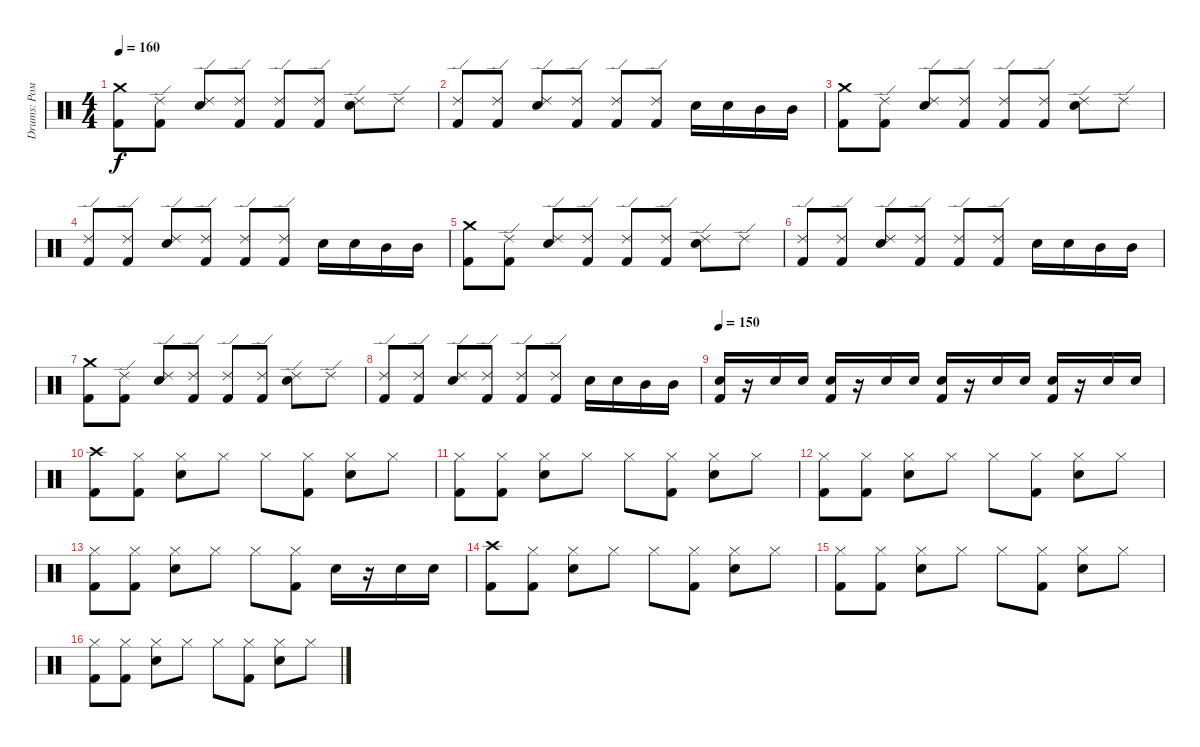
\track ("Drums: Рома" "Drums: Ром") {instrument percussion}
\staff {score}
\articulation defaults
\ts (4 4)
\tempo 160
\clef neutral
\ks c
("Crash medium (hit)" "Kick (hit) 2").8{dy f} ("Ride (edge) 2" "Kick (hit) 2").8 ("Ride (edge) 2" "Snare (hit) 2").8 ("Ride (edge) 2" "Kick (hit) 2").8 ("Ride (edge) 2" "Kick (hit) 2").8 ("Ride (edge) 2" "Kick (hit) 2").8 ("Ride (edge) 2" "Snare (hit) 2").8 "Ride (edge) 2".8 |
("Ride (edge) 2" "Kick (hit) 2").8 ("Ride (edge) 2" "Kick (hit) 2").8 ("Ride (edge) 2" "Snare (hit) 2").8 ("Ride (edge) 2" "Kick (hit) 2").8 ("Ride (edge) 2" "Kick (hit) 2").8 ("Ride (edge) 2" "Kick (hit) 2").8 "Snare (hit) 2".16 "Snare (hit) 2".16 "Mid Tom (hit)".16 "Mid Tom (hit)".16 |
("Crash medium (hit)" "Kick (hit) 2").8 ("Ride (edge) 2" "Kick (hit) 2").8 ("Ride (edge) 2" "Snare (hit) 2").8 ("Ride (edge) 2" "Kick (hit) 2").8 ("Ride (edge) 2" "Kick (hit) 2").8 ("Ride (edge) 2" "Kick (hit) 2").8 ("Ride (edge) 2" "Snare (hit) 2").8 "Ride (edge) 2".8 |
("Ride (edge) 2" "Kick (hit) 2").8 ("Ride (edge) 2" "Kick (hit) 2").8 ("Ride (edge) 2" "Snare (hit) 2").8 ("Ride (edge) 2" "Kick (hit) 2").8 ("Ride (edge) 2" "Kick (hit) 2").8 ("Ride (edge) 2" "Kick (hit) 2").8 "Snare (hit) 2".16 "Snare (hit) 2".16 "Mid Tom (hit)".16 "Mid Tom (hit)".16 |
("Crash medium (hit)" "Kick (hit) 2").8 ("Ride (edge) 2" "Kick (hit) 2").8 ("Ride (edge) 2" "Snare (hit) 2").8 ("Ride (edge) 2" "Kick (hit) 2").8 ("Ride (edge) 2" "Kick (hit) 2").8 ("Ride (edge) 2" "Kick (hit) 2").8 ("Ride (edge) 2" "Snare (hit) 2").8 "Ride (edge) 2".8 |
("Ride (edge) 2" "Kick (hit) 2").8 ("Ride (edge) 2" "Kick (hit) 2").8 ("Ride (edge) 2" "Snare (hit) 2").8 ("Ride (edge) 2" "Kick (hit) 2").8 ("Ride (edge) 2" "Kick (hit) 2").8 ("Ride (edge) 2" "Kick (hit) 2").8 "Snare (hit) 2".16 "Snare (hit) 2".16 "Mid Tom (hit)".16 "Mid Tom (hit)".16 |
("Crash medium (hit)" "Kick (hit) 2").8 ("Ride (edge) 2" "Kick (hit) 2").8 ("Ride (edge) 2" "Snare (hit) 2").8 ("Ride (edge) 2" "Kick (hit) 2").8 ("Ride (edge) 2" "Kick (hit) 2").8 ("Ride (edge) 2" "Kick (hit) 2").8 ("Ride (edge) 2" "Snare (hit) 2").8 "Ride (edge) 2".8 |
("Ride (edge) 2" "Kick (hit) 2").8 ("Ride (edge) 2" "Kick (hit) 2").8 ("Ride (edge) 2" "Snare (hit) 2").8 ("Ride (edge) 2" "Kick (hit) 2").8 ("Ride (edge) 2" "Kick (hit) 2").8 ("Ride (edge) 2" "Kick (hit) 2").8 "Snare (hit) 2".16 "Snare (hit) 2".16 "Mid Tom (hit)".16 "Mid Tom (hit)".16 |
\tempo 150
("Snare (hit) 2" "Kick (hit) 2").16 r.16 "Snare (hit) 2".16 "Snare (hit) 2".16 ("Snare (hit) 2" "Kick (hit) 2").16 r.16 "Snare (hit) 2".16 "Snare (hit) 2".16 ("Snare (hit) 2" "Kick (hit) 2").16 r.16 "Snare (hit) 2".16 "Snare (hit) 2".16 ("Snare (hit) 2" "Kick (hit) 2").16 r.16 "Snare (hit) 2".16 "Snare (hit) 2".16 |
("Crash high (hit)" "Kick (hit) 2").8 ("Hi-Hat (closed)" "Kick (hit) 2").8 ("Hi-Hat (closed)" "Snare (hit) 2").8 "Hi-Hat (closed)".8 "Hi-Hat (closed)".8 ("Hi-Hat (closed)" "Kick (hit) 2").8 ("Hi-Hat (closed)" "Snare (hit) 2").8 "Hi-Hat (closed)".8 |
("Hi-Hat (closed)" "Kick (hit) 2").8 ("Hi-Hat (closed)" "Kick (hit) 2").8 ("Hi-Hat (closed)" "Snare (hit) 2").8 "Hi-Hat (closed)".8 "Hi-Hat (closed)".8 ("Hi-Hat (closed)" "Kick (hit) 2").8 ("Hi-Hat (closed)" "Snare (hit) 2").8 "Hi-Hat (closed)".8 |
("Hi-Hat (closed)" "Kick (hit) 2").8 ("Hi-Hat (closed)" "Kick (hit) 2").8 ("Hi-Hat (closed)" "Snare (hit) 2").8 "Hi-Hat (closed)".8 "Hi-Hat (closed)".8 ("Hi-Hat (closed)" "Kick (hit) 2").8 ("Hi-Hat (closed)" "Snare (hit) 2").8 "Hi-Hat (closed)".8 |
("Hi-Hat (closed)" "Kick (hit) 2").8 ("Hi-Hat (closed)" "Kick (hit) 2").8 ("Hi-Hat (closed)" "Snare (hit) 2").8 "Hi-Hat (closed)".8 "Hi-Hat (closed)".8 ("Hi-Hat (closed)" "Kick (hit) 2").8 "Snare (hit) 2".16 r.16 "Snare (hit) 2".16 "Snare (hit) 2".16 |
("Crash high (hit)" "Kick (hit) 2").8 ("Hi-Hat (closed)" "Kick (hit) 2").8 ("Hi-Hat (closed)" "Snare (hit) 2").8 "Hi-Hat (closed)".8 "Hi-Hat (closed)".8 ("Hi-Hat (closed)" "Kick (hit) 2").8 ("Hi-Hat (closed)" "Snare (hit) 2").8 "Hi-Hat (closed)".8 |
("Hi-Hat (closed)" "Kick (hit) 2").8 ("Hi-Hat (closed)" "Kick (hit) 2").8 ("Hi-Hat (closed)" "Snare (hit) 2").8 "Hi-Hat (closed)".8 "Hi-Hat (closed)".8 ("Hi-Hat (closed)" "Kick (hit) 2").8 ("Hi-Hat (closed)" "Snare (hit) 2").8 "Hi-Hat (closed)".8 |
("Hi-Hat (closed)" "Kick (hit) 2").8 ("Hi-Hat (closed)" "Kick (hit) 2").8 ("Hi-Hat (closed)" "Snare (hit) 2").8 "Hi-Hat (closed)".8 "Hi-Hat (closed)".8 ("Hi-Hat (closed)" "Kick (hit) 2").8 ("Hi-Hat (closed)" "Snare (hit) 2").8 "Hi-Hat (closed)".8
